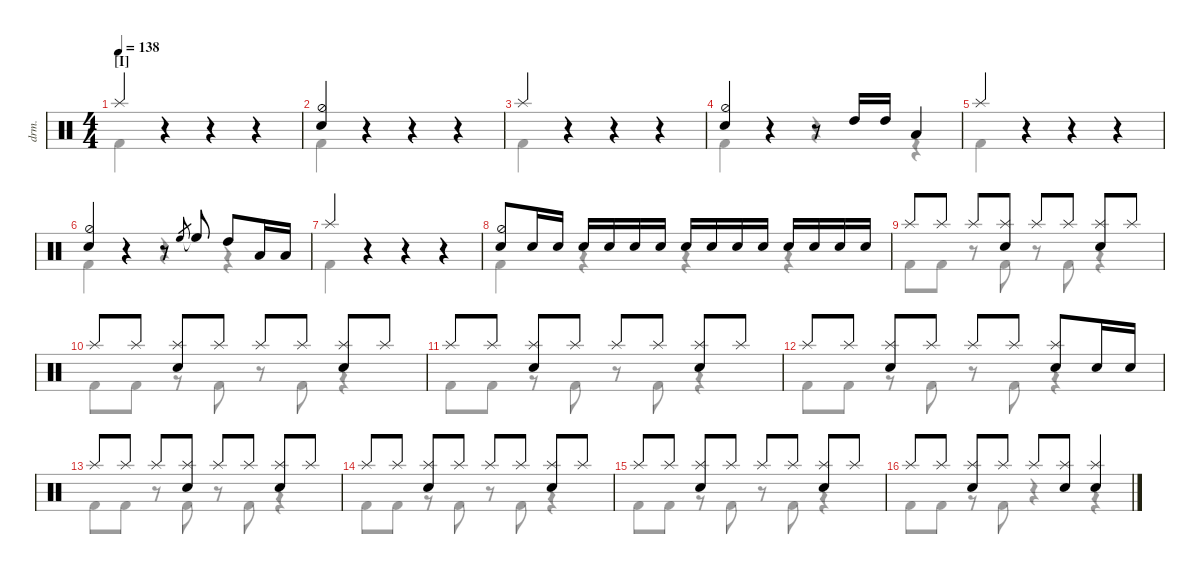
\defaultSystemsLayout 4
\hideDynamics
\bracketExtendMode nobrackets
\track ("Drumkit" "drm.") {instrument percussion}
\staff {score}
\articulation defaults
\voice
\ts (4 4)
\section ("I" "")
\tempo 138
\clef neutral
\ks c "Splash (hit)".4{dy mf beam Up}
r.4{beam Up} r.4{beam Up} r.4{beam Up} |
("Snare (hit) 2" "Hi-Hat (half)").4{beam Up} r.4{beam Up} r.4{beam Up} r.4{beam Up} |
"Splash (hit)".4{beam Up} r.4{beam Up} r.4{beam Up} r.4{beam Up} |
("Snare (hit) 2" "Hi-Hat (half)").4{beam Up} r.4{beam Up} r.8{beam Up} "High Tom (hit)".16{beam Up} "High Tom (hit)".16{beam Up} "Low Tom (hit)".4{beam Up} |
"Splash (hit)".4{beam Up} r.4{beam Up} r.4{beam Up} r.4{beam Up} |
("Snare (hit) 2" "Hi-Hat (half)").4{beam Up} r.4{beam Up} r.8{beam Up} "High Floor Tom (hit)".8{gr beam Up} "High Floor Tom (hit)"{t}.8{beam Up} "High Tom (hit)".8{beam Up} "Low Tom (hit)".16{beam Up} "Low Tom (hit)".16{beam Up} |
"Splash (hit)".4{beam Up} r.4{beam Up} r.4{beam Up} r.4{beam Up} |
("Snare (hit) 2" "Hi-Hat (half)").8{beam Up} "Snare (hit) 2".16{beam Up} "Snare (hit) 2".16{beam Up} "Snare (hit) 2".16{beam Up} "Snare (hit) 2".16{beam Up} "Snare (hit) 2".16{beam Up} "Snare (hit) 2".16{beam Up} "Snare (hit) 2".16{beam Up} "Snare (hit) 2".16{beam Up} "Snare (hit) 2".16{beam Up} "Snare (hit) 2".16{beam Up} "Snare (hit) 2".16{beam Up} "Snare (hit) 2".16{beam Up} "Snare (hit) 2".16{beam Up} "Snare (hit) 2".16{beam Up} |
"Splash (hit)".8{beam Up} "Splash (hit)".8{beam Up} "Splash (hit)".8{beam Up} ("Splash (hit)" "Snare (hit) 2").8{beam Up} "Splash (hit)".8{beam Up} "Splash (hit)".8{beam Up} ("Splash (hit)" "Snare (hit) 2").8{beam Up} "Splash (hit)".8{beam Up} |
"Splash (hit)".8{beam Up} "Splash (hit)".8{beam Up} ("Splash (hit)" "Snare (hit) 2").8{beam Up} "Splash (hit)".8{beam Up} "Splash (hit)".8{beam Up} "Splash (hit)".8{beam Up} ("Splash (hit)" "Snare (hit) 2").8{beam Up} "Splash (hit)".8{beam Up} |
"Splash (hit)".8{beam Up} "Splash (hit)".8{beam Up} ("Splash (hit)" "Snare (hit) 2").8{beam Up} "Splash (hit)".8{beam Up} "Splash (hit)".8{beam Up} "Splash (hit)".8{beam Up} ("Splash (hit)" "Snare (hit) 2").8{beam Up} "Splash (hit)".8{beam Up} |
"Splash (hit)".8{beam Up} "Splash (hit)".8{beam Up} ("Splash (hit)" "Snare (hit) 2").8{beam Up} "Splash (hit)".8{beam Up} "Splash (hit)".8{beam Up} "Splash (hit)".8{beam Up} ("Splash (hit)" "Snare (hit) 2").8{beam Up} "Snare (hit) 2".16{beam Up} "Snare (hit) 2".16{beam Up} |
"Splash (hit)".8{beam Up} "Splash (hit)".8{beam Up} "Splash (hit)".8{beam Up} ("Splash (hit)" "Snare (hit) 2").8{beam Up} "Splash (hit)".8{beam Up} "Splash (hit)".8{beam Up} ("Splash (hit)" "Snare (hit) 2").8{beam Up} "Splash (hit)".8{beam Up} |
"Splash (hit)".8{beam Up} "Splash (hit)".8{beam Up} ("Splash (hit)" "Snare (hit) 2").8{beam Up} "Splash (hit)".8{beam Up} "Splash (hit)".8{beam Up} "Splash (hit)".8{beam Up} ("Splash (hit)" "Snare (hit) 2").8{beam Up} "Splash (hit)".8{beam Up} |
"Splash (hit)".8{beam Up} "Splash (hit)".8{beam Up} ("Splash (hit)" "Snare (hit) 2").8{beam Up} "Splash (hit)".8{beam Up} "Splash (hit)".8{beam Up} "Splash (hit)".8{beam Up} ("Splash (hit)" "Snare (hit) 2").8{beam Up} "Splash (hit)".8{beam Up} |
"Splash (hit)".8{beam Up} "Splash (hit)".8{beam Up} ("Splash (hit)" "Snare (hit) 2").8{beam Up} "Splash (hit)".8{beam Up} "Splash (hit)".8{beam Up} ("Splash (hit)" "Snare (hit) 2").8{beam Up} ("Splash (hit)" "Snare (hit) 2").4{beam Up}
\voice
\clef neutral
\ottava regular
\simile none
\ks c
|
|
|
|
|
|
|
|
|
|
|
|
|
|
|
\voice
\clef neutral
\ottava regular
\simile none
\ks c "Kick (hit) 2".4{dy mf beam Down}
r.4{beam Down} r.4{beam Down} r.4{beam Down} |
"Kick (hit) 2".4{beam Down} r.4{beam Down} r.4{beam Down} r.4{beam Down} |
"Kick (hit) 2".4{beam Down} r.4{beam Down} r.4{beam Down} r.4{beam Down} |
"Kick (hit) 2".4{beam Down} r.4{beam Down} r.4{beam Down} r.4{beam Down} |
"Kick (hit) 2".4{beam Down} r.4{beam Down} r.4{beam Down} r.4{beam Down} |
"Kick (hit) 2".4{beam Down} r.4{beam Down} r.4{beam Down} r.4{beam Down} |
"Kick (hit) 2".4{beam Down} r.4{beam Down} r.4{beam Down} r.4{beam Down} |
"Kick (hit) 2".4{beam Down} r.4{beam Down} r.4{beam Down} r.4{beam Down} |
"Kick (hit) 2".8{beam Down} "Kick (hit) 2".8{beam Down} r.8{beam Down} "Kick (hit) 2".8{beam Down} r.8{beam Down} "Kick (hit) 2".8{beam Down} r.4{beam Down} |
"Kick (hit) 2".8{beam Down} "Kick (hit) 2".8{beam Down} r.8{beam Down} "Kick (hit) 2".8{beam Down} r.8{beam Down} "Kick (hit) 2".8{beam Down} r.4{beam Down} |
"Kick (hit) 2".8{beam Down} "Kick (hit) 2".8{beam Down} r.8{beam Down} "Kick (hit) 2".8{beam Down} r.8{beam Down} "Kick (hit) 2".8{beam Down} r.4{beam Down} |
"Kick (hit) 2".8{beam Down} "Kick (hit) 2".8{beam Down} r.8{beam Down} "Kick (hit) 2".8{beam Down} r.8{beam Down} "Kick (hit) 2".8{beam Down} r.4{beam Down} |
"Kick (hit) 2".8{beam Down} "Kick (hit) 2".8{beam Down} r.8{beam Down} "Kick (hit) 2".8{beam Down} r.8{beam Down} "Kick (hit) 2".8{beam Down} r.4{beam Down} |
"Kick (hit) 2".8{beam Down} "Kick (hit) 2".8{beam Down} r.8{beam Down} "Kick (hit) 2".8{beam Down} r.8{beam Down} "Kick (hit) 2".8{beam Down} r.4{beam Down} |
"Kick (hit) 2".8{beam Down} "Kick (hit) 2".8{beam Down} r.8{beam Down} "Kick (hit) 2".8{beam Down} r.8{beam Down} "Kick (hit) 2".8{beam Down} r.4{beam Down} |
"Kick (hit) 2".8{beam Down} "Kick (hit) 2".8{beam Down} r.8{beam Down} "Kick (hit) 2".8{beam Down} r.4{beam Down} r.4{beam Down}
